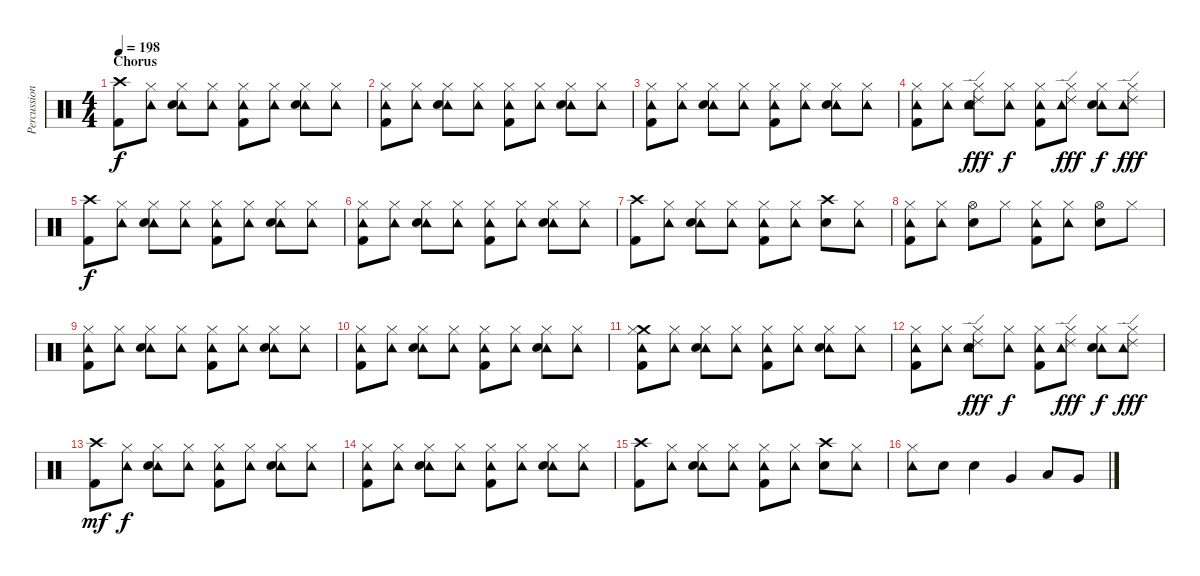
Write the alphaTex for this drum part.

\track ("Percussion" "Percussion") {instrument percussion}
\staff {score}
\articulation defaults
\ts (4 4)
\section ("" "Chorus")
\tempo 198
\clef neutral
\ks c
("Crash high (hit)" "Kick (hit) 2").8{dy f} ("Tambourine (hit)" "Hi-Hat (closed)").8 ("Tambourine (hit)" "Hi-Hat (closed)" "Electric Snare (hit)").8 ("Tambourine (hit)" "Hi-Hat (closed)").8 ("Tambourine (hit)" "Hi-Hat (closed)" "Kick (hit) 2").8 ("Tambourine (hit)" "Hi-Hat (closed)").8 ("Tambourine (hit)" "Hi-Hat (closed)" "Electric Snare (hit)").8 ("Tambourine (hit)" "Hi-Hat (closed)").8 |
("Tambourine (hit)" "Hi-Hat (closed)" "Kick (hit) 2").8 ("Tambourine (hit)" "Hi-Hat (closed)").8 ("Tambourine (hit)" "Hi-Hat (closed)" "Electric Snare (hit)").8 ("Tambourine (hit)" "Hi-Hat (closed)").8 ("Tambourine (hit)" "Hi-Hat (closed)" "Kick (hit) 2").8 ("Tambourine (hit)" "Hi-Hat (closed)").8 ("Tambourine (hit)" "Hi-Hat (closed)" "Electric Snare (hit)").8 ("Tambourine (hit)" "Hi-Hat (closed)").8 |
("Tambourine (hit)" "Hi-Hat (closed)" "Kick (hit) 2").8 ("Tambourine (hit)" "Hi-Hat (closed)").8 ("Tambourine (hit)" "Hi-Hat (closed)" "Electric Snare (hit)").8 ("Tambourine (hit)" "Hi-Hat (closed)").8 ("Tambourine (hit)" "Hi-Hat (closed)" "Kick (hit) 2").8 ("Tambourine (hit)" "Hi-Hat (closed)").8 ("Tambourine (hit)" "Hi-Hat (closed)" "Electric Snare (hit)").8 ("Tambourine (hit)" "Hi-Hat (closed)").8 |
("Tambourine (hit)" "Hi-Hat (closed)" "Kick (hit) 2").8 ("Tambourine (hit)" "Hi-Hat (closed)").8 ("Ride (edge) 2" "Tambourine (hit)" "Hi-Hat (closed)" "Electric Snare (hit)").8{dy fff} ("Tambourine (hit)" "Hi-Hat (closed)").8{dy f} ("Tambourine (hit)" "Hi-Hat (closed)" "Kick (hit) 2").8 ("Ride (edge) 2" "Tambourine (hit)" "Hi-Hat (closed)").8{dy fff} ("Tambourine (hit)" "Hi-Hat (closed)" "Electric Snare (hit)").8{dy f} ("Ride (edge) 2" "Tambourine (hit)" "Hi-Hat (closed)").8{dy fff} |
("Crash high (hit)" "Kick (hit) 2").8{dy f} ("Tambourine (hit)" "Hi-Hat (closed)").8 ("Tambourine (hit)" "Hi-Hat (closed)" "Electric Snare (hit)").8 ("Tambourine (hit)" "Hi-Hat (closed)").8 ("Tambourine (hit)" "Hi-Hat (closed)" "Kick (hit) 2").8 ("Tambourine (hit)" "Hi-Hat (closed)").8 ("Tambourine (hit)" "Hi-Hat (closed)" "Electric Snare (hit)").8 ("Tambourine (hit)" "Hi-Hat (closed)").8 |
("Tambourine (hit)" "Hi-Hat (closed)" "Kick (hit) 2").8 ("Tambourine (hit)" "Hi-Hat (closed)").8 ("Tambourine (hit)" "Hi-Hat (closed)" "Electric Snare (hit)").8 ("Tambourine (hit)" "Hi-Hat (closed)").8 ("Tambourine (hit)" "Hi-Hat (closed)" "Kick (hit) 2").8 ("Tambourine (hit)" "Hi-Hat (closed)").8 ("Tambourine (hit)" "Hi-Hat (closed)" "Electric Snare (hit)").8 ("Tambourine (hit)" "Hi-Hat (closed)").8 |
("Crash high (hit)" "Kick (hit) 2").8 ("Tambourine (hit)" "Hi-Hat (closed)").8 ("Tambourine (hit)" "Hi-Hat (closed)" "Electric Snare (hit)").8 ("Tambourine (hit)" "Hi-Hat (closed)").8 ("Tambourine (hit)" "Hi-Hat (closed)" "Kick (hit) 2").8 ("Tambourine (hit)" "Hi-Hat (closed)").8 ("Crash high (hit)" "Electric Snare (hit)").8 ("Tambourine (hit)" "Hi-Hat (closed)").8 |
("Tambourine (hit)" "Hi-Hat (closed)" "Kick (hit) 2").8 ("Tambourine (hit)" "Hi-Hat (closed)").8 ("Hi-Hat (open)" "Electric Snare (hit)").8 "Hi-Hat (closed)".8 ("Tambourine (hit)" "Hi-Hat (closed)" "Kick (hit) 2").8 ("Tambourine (hit)" "Hi-Hat (closed)").8 ("Hi-Hat (open)" "Electric Snare (hit)").8 "Hi-Hat (closed)".8 |
("Tambourine (hit)" "Hi-Hat (closed)" "Kick (hit) 2").8 ("Tambourine (hit)" "Hi-Hat (closed)").8 ("Tambourine (hit)" "Hi-Hat (closed)" "Electric Snare (hit)").8 ("Tambourine (hit)" "Hi-Hat (closed)").8 ("Tambourine (hit)" "Hi-Hat (closed)" "Kick (hit) 2").8 ("Tambourine (hit)" "Hi-Hat (closed)").8 ("Tambourine (hit)" "Hi-Hat (closed)" "Electric Snare (hit)").8 ("Tambourine (hit)" "Hi-Hat (closed)").8 |
("Tambourine (hit)" "Hi-Hat (closed)" "Kick (hit) 2").8 ("Tambourine (hit)" "Hi-Hat (closed)").8 ("Tambourine (hit)" "Hi-Hat (closed)" "Electric Snare (hit)").8 ("Tambourine (hit)" "Hi-Hat (closed)").8 ("Tambourine (hit)" "Hi-Hat (closed)" "Kick (hit) 2").8 ("Tambourine (hit)" "Hi-Hat (closed)").8 ("Tambourine (hit)" "Hi-Hat (closed)" "Electric Snare (hit)").8 ("Tambourine (hit)" "Hi-Hat (closed)").8 |
("Crash medium (hit)" "Tambourine (hit)" "Hi-Hat (closed)" "Kick (hit) 2").8 ("Tambourine (hit)" "Hi-Hat (closed)").8 ("Tambourine (hit)" "Hi-Hat (closed)" "Electric Snare (hit)").8 ("Tambourine (hit)" "Hi-Hat (closed)").8 ("Tambourine (hit)" "Hi-Hat (closed)" "Kick (hit) 2").8 ("Tambourine (hit)" "Hi-Hat (closed)").8 ("Tambourine (hit)" "Hi-Hat (closed)" "Electric Snare (hit)").8 ("Tambourine (hit)" "Hi-Hat (closed)").8 |
("Tambourine (hit)" "Hi-Hat (closed)" "Kick (hit) 2").8 ("Tambourine (hit)" "Hi-Hat (closed)").8 ("Ride (edge) 2" "Tambourine (hit)" "Hi-Hat (closed)" "Electric Snare (hit)").8{dy fff} ("Tambourine (hit)" "Hi-Hat (closed)").8{dy f} ("Tambourine (hit)" "Hi-Hat (closed)" "Kick (hit) 2").8 ("Ride (edge) 2" "Tambourine (hit)" "Hi-Hat (closed)").8{dy fff} ("Tambourine (hit)" "Hi-Hat (closed)" "Electric Snare (hit)").8{dy f} ("Ride (edge) 2" "Tambourine (hit)" "Hi-Hat (closed)").8{dy fff} |
("Crash high (hit)" "Kick (hit) 2").8{dy mf} ("Tambourine (hit)" "Hi-Hat (closed)").8{dy f} ("Tambourine (hit)" "Hi-Hat (closed)" "Electric Snare (hit)").8 ("Tambourine (hit)" "Hi-Hat (closed)").8 ("Tambourine (hit)" "Hi-Hat (closed)" "Kick (hit) 2").8 ("Tambourine (hit)" "Hi-Hat (closed)").8 ("Tambourine (hit)" "Hi-Hat (closed)" "Electric Snare (hit)").8 ("Tambourine (hit)" "Hi-Hat (closed)").8 |
("Tambourine (hit)" "Hi-Hat (closed)" "Kick (hit) 2").8 ("Tambourine (hit)" "Hi-Hat (closed)").8 ("Tambourine (hit)" "Hi-Hat (closed)" "Electric Snare (hit)").8 ("Tambourine (hit)" "Hi-Hat (closed)").8 ("Tambourine (hit)" "Hi-Hat (closed)" "Kick (hit) 2").8 ("Tambourine (hit)" "Hi-Hat (closed)").8 ("Tambourine (hit)" "Hi-Hat (closed)" "Electric Snare (hit)").8 ("Tambourine (hit)" "Hi-Hat (closed)").8 |
("Crash high (hit)" "Kick (hit) 2").8 ("Tambourine (hit)" "Hi-Hat (closed)").8 ("Tambourine (hit)" "Hi-Hat (closed)" "Electric Snare (hit)").8 ("Tambourine (hit)" "Hi-Hat (closed)").8 ("Tambourine (hit)" "Hi-Hat (closed)" "Kick (hit) 2").8 ("Tambourine (hit)" "Hi-Hat (closed)").8 ("Crash high (hit)" "Electric Snare (hit)").8 ("Tambourine (hit)" "Hi-Hat (closed)").8 |
("Tambourine (hit)" "Hi-Hat (closed)").8 "Electric Snare (hit)".8 "Electric Snare (hit)".4 "Very Low Tom (hit)".4 "Low Tom (hit)".8 "Very Low Tom (hit)".8
